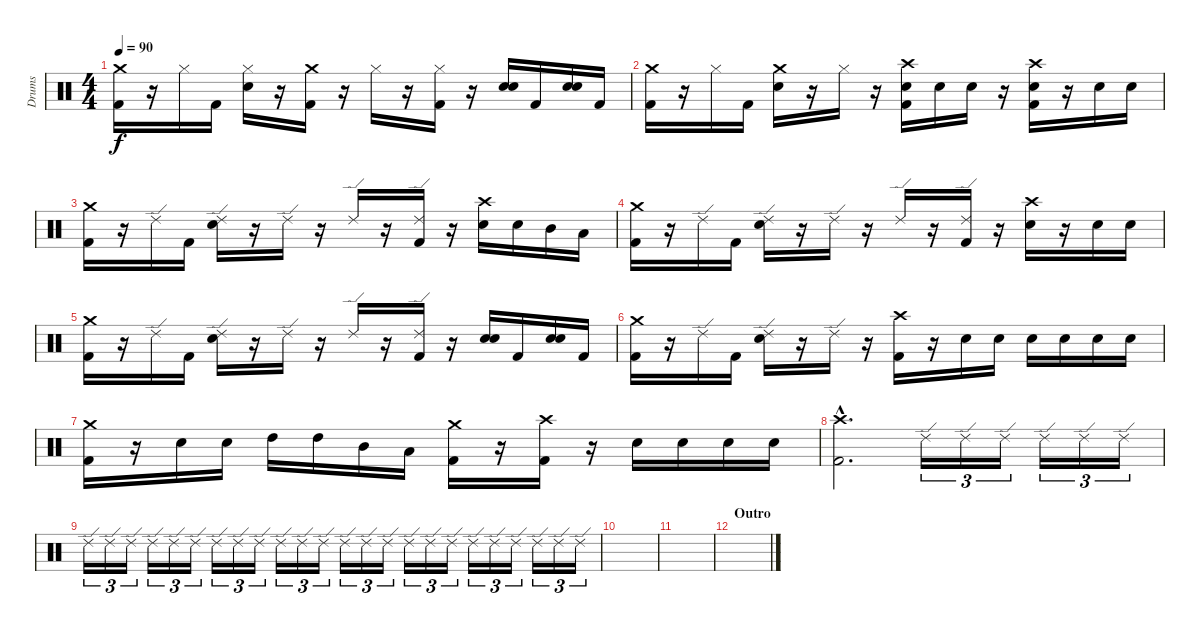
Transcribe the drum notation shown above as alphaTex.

\track ("Drums" "Drums") {instrument percussion}
\staff {score}
\articulation defaults
\ts (4 4)
\tempo 90
\clef neutral
\ks c
("Crash medium (hit)" "Kick (hit) 2").16{dy f} r.16 "Hi-Hat (closed)".16 "Kick (hit) 2".16 ("Hi-Hat (closed)" "Electric Snare (hit)").16 r.16 ("Crash medium (hit)" "Kick (hit) 2").16 r.16 "Hi-Hat (closed)".16 r.16 ("Hi-Hat (closed)" "Kick (hit) 2").16 r.16 ("Electric Snare (hit)" "Electric Snare (hit)").16{bd 120} "Kick (hit) 2".16 ("Electric Snare (hit)" "Electric Snare (hit)").16{bd 120} "Kick (hit) 2".16 |
("Crash medium (hit)" "Kick (hit) 2").16 r.16 "Hi-Hat (closed)".16 "Kick (hit) 2".16 ("Crash medium (hit)" "Electric Snare (hit)").16 r.16 "Hi-Hat (closed)".16 r.16 ("Crash high (hit)" "Electric Snare (hit)" "Kick (hit) 2").16 "Electric Snare (hit)".16 "Electric Snare (hit)".16 r.16 ("Crash high (hit)" "Electric Snare (hit)" "Kick (hit) 2").16 r.16 "Electric Snare (hit)".16 "Electric Snare (hit)".16 |
("Crash medium (hit)" "Kick (hit) 2").16 r.16 "Ride (edge) 2".16 "Kick (hit) 2".16 ("Ride (edge) 2" "Electric Snare (hit)").16 r.16 "Ride (edge) 2".16 r.16 "Ride (edge) 2".16 r.16 ("Ride (edge) 2" "Kick (hit) 2").16 r.16 ("Crash high (hit)" "Electric Snare (hit)").16 "Electric Snare (hit)".16 "Mid Tom (hit)".16 "Low Tom (hit)".16 |
("Crash medium (hit)" "Kick (hit) 2").16 r.16 "Ride (edge) 2".16 "Kick (hit) 2".16 ("Ride (edge) 2" "Electric Snare (hit)").16 r.16 "Ride (edge) 2".16 r.16 "Ride (edge) 2".16 r.16 ("Ride (edge) 2" "Kick (hit) 2").16 r.16 ("Crash high (hit)" "Electric Snare (hit)").16 r.16 "Electric Snare (hit)".16 "Electric Snare (hit)".16 |
("Crash medium (hit)" "Kick (hit) 2").16 r.16 "Ride (edge) 2".16 "Kick (hit) 2".16 ("Ride (edge) 2" "Electric Snare (hit)").16 r.16 "Ride (edge) 2".16 r.16 "Ride (edge) 2".16 r.16 ("Ride (edge) 2" "Kick (hit) 2").16 r.16 ("Electric Snare (hit)" "Electric Snare (hit)").16{bd 120} "Kick (hit) 2".16 ("Electric Snare (hit)" "Electric Snare (hit)").16{bd 120} "Kick (hit) 2".16 |
("Crash medium (hit)" "Kick (hit) 2").16 r.16 "Ride (edge) 2".16 "Kick (hit) 2".16 ("Ride (edge) 2" "Electric Snare (hit)").16 r.16 "Ride (edge) 2".16 r.16 ("Crash high (hit)" "Kick (hit) 2").16 r.16 "Electric Snare (hit)".16 "Electric Snare (hit)".16 "Electric Snare (hit)".16 "Electric Snare (hit)".16 "Electric Snare (hit)".16 "Electric Snare (hit)".16 |
("Crash medium (hit)" "Kick (hit) 2").16 r.16 "Electric Snare (hit)".16 "Electric Snare (hit)".16 "High Tom (hit)".16 "High Tom (hit)".16 "Mid Tom (hit)".16 "Low Tom (hit)".16 ("Crash medium (hit)" "Kick (hit) 2").16 r.16 ("Crash high (hit)" "Kick (hit) 2").16 r.16 "Electric Snare (hit)".16 "Electric Snare (hit)".16 "Electric Snare (hit)".16 "Electric Snare (hit)".16 |
("Crash high (hit)"{hac} "Kick (hit) 2"{hac}).2{d volume 2} "Ride (edge) 2".16{tu (3 2) volume 16} "Ride (edge) 2".16{tu (3 2)} "Ride (edge) 2".16{tu (3 2)} "Ride (edge) 2".16{tu (3 2)} "Ride (edge) 2".16{tu (3 2)} "Ride (edge) 2".16{tu (3 2)} |
"Ride (edge) 2".16{tu (3 2)} "Ride (edge) 2".16{tu (3 2)} "Ride (edge) 2".16{tu (3 2)} "Ride (edge) 2".16{tu (3 2)} "Ride (edge) 2".16{tu (3 2)} "Ride (edge) 2".16{tu (3 2)} "Ride (edge) 2".16{tu (3 2)} "Ride (edge) 2".16{tu (3 2)} "Ride (edge) 2".16{tu (3 2)} "Ride (edge) 2".16{tu (3 2)} "Ride (edge) 2".16{tu (3 2)} "Ride (edge) 2".16{tu (3 2)} "Ride (edge) 2".16{tu (3 2)} "Ride (edge) 2".16{tu (3 2)} "Ride (edge) 2".16{tu (3 2)} "Ride (edge) 2".16{tu (3 2)} "Ride (edge) 2".16{tu (3 2)} "Ride (edge) 2".16{tu (3 2)} "Ride (edge) 2".16{tu (3 2)} "Ride (edge) 2".16{tu (3 2)} "Ride (edge) 2".16{tu (3 2)} "Ride (edge) 2".16{tu (3 2)} "Ride (edge) 2".16{tu (3 2)} "Ride (edge) 2".16{tu (3 2)} |
|
|
\section ("" "Outro")
